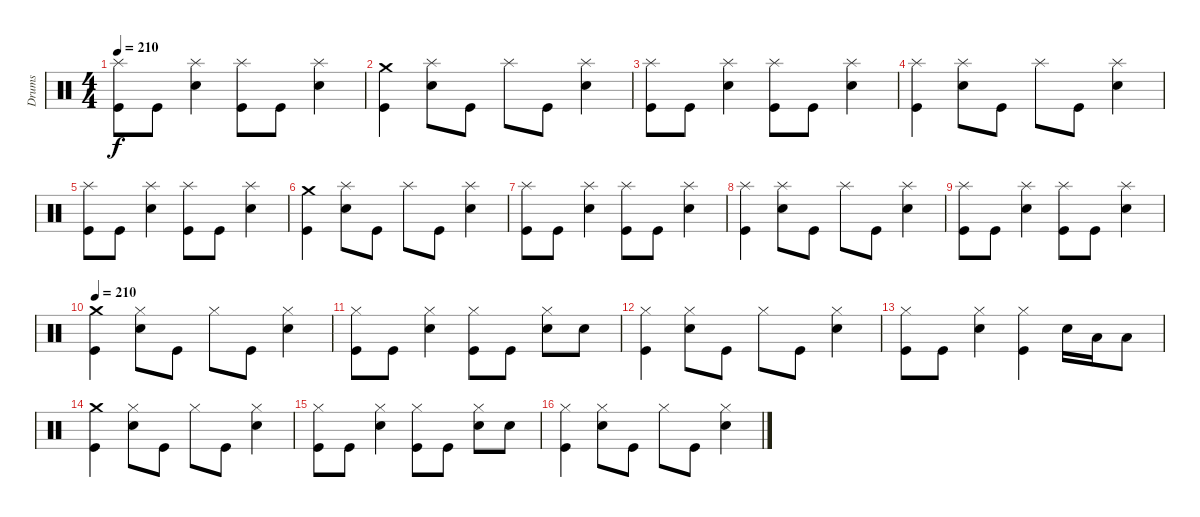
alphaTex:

\track ("Drums" "Drums") {instrument percussion}
\staff {score}
\articulation defaults
\ts (4 4)
\tempo 210
\clef neutral
\ks c
("Splash (hit)" "Kick (hit)").8{dy f} "Kick (hit)".8 ("Splash (hit)" "Electric Snare (hit)").4 ("Splash (hit)" "Kick (hit)").8 "Kick (hit)".8 ("Splash (hit)" "Electric Snare (hit)").4 |
("Crash medium (hit)" "Kick (hit)").4 ("Splash (hit)" "Electric Snare (hit)").8 "Kick (hit)".8 "Splash (hit)".8 "Kick (hit)".8 ("Splash (hit)" "Electric Snare (hit)").4 |
("Splash (hit)" "Kick (hit)").8 "Kick (hit)".8 ("Splash (hit)" "Electric Snare (hit)").4 ("Splash (hit)" "Kick (hit)").8 "Kick (hit)".8 ("Splash (hit)" "Electric Snare (hit)").4 |
("Splash (hit)" "Kick (hit)").4 ("Splash (hit)" "Electric Snare (hit)").8 "Kick (hit)".8 "Splash (hit)".8 "Kick (hit)".8 ("Splash (hit)" "Electric Snare (hit)").4 |
("Splash (hit)" "Kick (hit)").8 "Kick (hit)".8 ("Splash (hit)" "Electric Snare (hit)").4 ("Splash (hit)" "Kick (hit)").8 "Kick (hit)".8 ("Splash (hit)" "Electric Snare (hit)").4 |
("Crash medium (hit)" "Kick (hit)").4 ("Splash (hit)" "Electric Snare (hit)").8 "Kick (hit)".8 "Splash (hit)".8 "Kick (hit)".8 ("Splash (hit)" "Electric Snare (hit)").4 |
("Splash (hit)" "Kick (hit)").8 "Kick (hit)".8 ("Splash (hit)" "Electric Snare (hit)").4 ("Splash (hit)" "Kick (hit)").8 "Kick (hit)".8 ("Splash (hit)" "Electric Snare (hit)").4 |
("Splash (hit)" "Kick (hit)").4 ("Splash (hit)" "Electric Snare (hit)").8 "Kick (hit)".8 "Splash (hit)".8 "Kick (hit)".8 ("Splash (hit)" "Electric Snare (hit)").4 |
("Splash (hit)" "Kick (hit)").8 "Kick (hit)".8 ("Splash (hit)" "Electric Snare (hit)").4 ("Splash (hit)" "Kick (hit)").8 "Kick (hit)".8 ("Splash (hit)" "Electric Snare (hit)").4 |
\tempo 210
("Crash medium (hit)" "Kick (hit)").4 ("Hi-Hat (closed)" "Electric Snare (hit)").8 "Kick (hit)".8 "Hi-Hat (closed)".8 "Kick (hit)".8 ("Hi-Hat (closed)" "Electric Snare (hit)").4 |
("Hi-Hat (closed)" "Kick (hit)").8 "Kick (hit)".8 ("Hi-Hat (closed)" "Electric Snare (hit)").4 ("Hi-Hat (closed)" "Kick (hit)").8 "Kick (hit)".8 ("Hi-Hat (closed)" "Electric Snare (hit)").8 "Electric Snare (hit)".8 |
("Hi-Hat (closed)" "Kick (hit)").4 ("Hi-Hat (closed)" "Electric Snare (hit)").8 "Kick (hit)".8 "Hi-Hat (closed)".8 "Kick (hit)".8 ("Hi-Hat (closed)" "Electric Snare (hit)").4 |
("Hi-Hat (closed)" "Kick (hit)").8 "Kick (hit)".8 ("Hi-Hat (closed)" "Electric Snare (hit)").4 ("Hi-Hat (closed)" "Kick (hit)").4 "Electric Snare (hit)".16 "Low Tom (hit)".16 "Low Tom (hit)".8 |
("Crash medium (hit)" "Kick (hit)").4 ("Hi-Hat (closed)" "Electric Snare (hit)").8 "Kick (hit)".8 "Hi-Hat (closed)".8 "Kick (hit)".8 ("Hi-Hat (closed)" "Electric Snare (hit)").4 |
("Hi-Hat (closed)" "Kick (hit)").8 "Kick (hit)".8 ("Hi-Hat (closed)" "Electric Snare (hit)").4 ("Hi-Hat (closed)" "Kick (hit)").8 "Kick (hit)".8 ("Hi-Hat (closed)" "Electric Snare (hit)").8 "Electric Snare (hit)".8 |
("Hi-Hat (closed)" "Kick (hit)").4 ("Hi-Hat (closed)" "Electric Snare (hit)").8 "Kick (hit)".8 "Hi-Hat (closed)".8 "Kick (hit)".8 ("Hi-Hat (closed)" "Electric Snare (hit)").4
